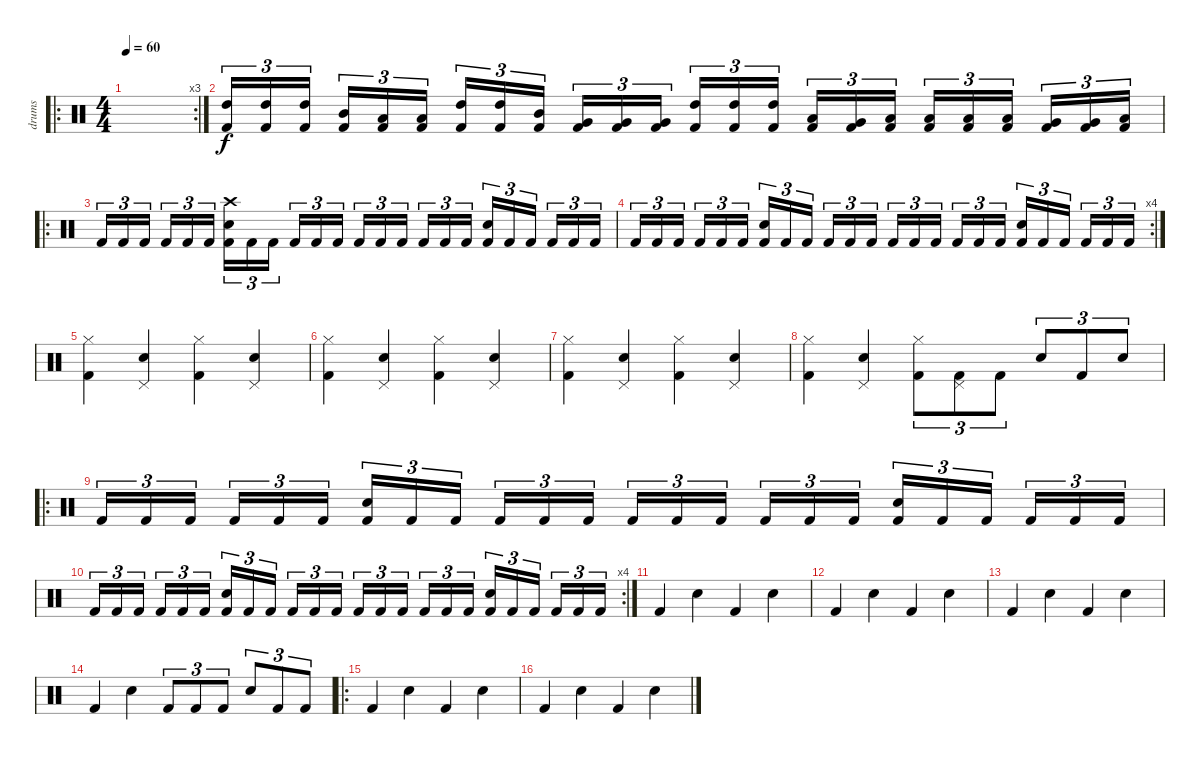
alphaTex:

\track ("drums" "drums") {instrument percussion}
\staff {score}
\articulation defaults
\ro
\rc 3
\ts (4 4)
\tempo 60
\tempo 120
\tempo 60
\clef neutral
\ks c
|
("High Tom (hit)" "Kick (hit) 2").16{tu (3 2)} ("High Tom (hit)" "Kick (hit) 2").16{tu (3 2)} ("High Tom (hit)" "Kick (hit) 2").16{tu (3 2)} ("Mid Tom (hit)" "Kick (hit) 2").16{tu (3 2)} ("Low Tom (hit)" "Kick (hit) 2").16{tu (3 2)} ("Low Tom (hit)" "Kick (hit) 2").16{tu (3 2)} ("High Tom (hit)" "Kick (hit) 2").16{tu (3 2)} ("High Tom (hit)" "Kick (hit) 2").16{tu (3 2)} ("Mid Tom (hit)" "Kick (hit) 2").16{tu (3 2)} ("Very Low Tom (hit)" "Kick (hit) 2").16{tu (3 2)} ("Very Low Tom (hit)" "Kick (hit) 2").16{tu (3 2)} ("Very Low Tom (hit)" "Kick (hit) 2").16{tu (3 2)} ("High Tom (hit)" "Kick (hit) 2").16{tu (3 2)} ("High Tom (hit)" "Kick (hit) 2").16{tu (3 2)} ("High Tom (hit)" "Kick (hit) 2").16{tu (3 2)} ("Low Tom (hit)" "Kick (hit) 2").16{tu (3 2)} ("Very Low Tom (hit)" "Kick (hit) 2").16{tu (3 2)} ("Low Floor Tom (hit)" "Kick (hit) 2").16{tu (3 2)} ("Low Tom (hit)" "Kick (hit) 2").16{tu (3 2)} ("Low Tom (hit)" "Kick (hit) 2").16{tu (3 2)} ("Low Tom (hit)" "Kick (hit) 2").16{tu (3 2)} ("Very Low Tom (hit)" "Kick (hit) 2").16{tu (3 2)} ("Very Low Tom (hit)" "Kick (hit) 2").16{tu (3 2)} ("Low Floor Tom (hit)" "Kick (hit) 2").16{tu (3 2)} |
\ro "Kick (hit) 2".16{tu (3 2)} "Kick (hit) 2".16{tu (3 2)} "Kick (hit) 2".16{tu (3 2)} "Kick (hit) 2".16{tu (3 2)} "Kick (hit) 2".16{tu (3 2)} "Kick (hit) 2".16{tu (3 2)}
("Snare (hit) 2" "Crash high (hit)" "Kick (hit) 2").16{tu (3 2)} "Kick (hit) 2".16{tu (3 2)} "Kick (hit) 2".16{tu (3 2)} "Kick (hit) 2".16{tu (3 2)} "Kick (hit) 2".16{tu (3 2)} "Kick (hit) 2".16{tu (3 2)} "Kick (hit) 2".16{tu (3 2)} "Kick (hit) 2".16{tu (3 2)} "Kick (hit) 2".16{tu (3 2)} "Kick (hit) 2".16{tu (3 2)} "Kick (hit) 2".16{tu (3 2)} "Kick (hit) 2".16{tu (3 2)} ("Snare (hit) 2" "Kick (hit) 2").16{tu (3 2)} "Kick (hit) 2".16{tu (3 2)} "Kick (hit) 2".16{tu (3 2)} "Kick (hit) 2".16{tu (3 2)} "Kick (hit) 2".16{tu (3 2)} "Kick (hit) 2".16{tu (3 2)} |
\rc 4 "Kick (hit) 2".16{tu (3 2)} "Kick (hit) 2".16{tu (3 2)} "Kick (hit) 2".16{tu (3 2)} "Kick (hit) 2".16{tu (3 2)} "Kick (hit) 2".16{tu (3 2)} "Kick (hit) 2".16{tu (3 2)}
("Snare (hit) 2" "Kick (hit) 2").16{tu (3 2)} "Kick (hit) 2".16{tu (3 2)} "Kick (hit) 2".16{tu (3 2)} "Kick (hit) 2".16{tu (3 2)} "Kick (hit) 2".16{tu (3 2)} "Kick (hit) 2".16{tu (3 2)} "Kick (hit) 2".16{tu (3 2)} "Kick (hit) 2".16{tu (3 2)} "Kick (hit) 2".16{tu (3 2)} "Kick (hit) 2".16{tu (3 2)} "Kick (hit) 2".16{tu (3 2)} "Kick (hit) 2".16{tu (3 2)} ("Snare (hit) 2" "Kick (hit) 2").16{tu (3 2)} "Kick (hit) 2".16{tu (3 2)} "Kick (hit) 2".16{tu (3 2)} "Kick (hit) 2".16{tu (3 2)} "Kick (hit) 2".16{tu (3 2)} "Kick (hit) 2".16{tu (3 2)} |
("Hi-Hat (closed)" "Kick (hit) 2").4 ("Pedal Hi-Hat (hit)" "Snare (hit) 2").4 ("Hi-Hat (closed)" "Kick (hit) 2").4 ("Pedal Hi-Hat (hit)" "Snare (hit) 2").4 |
("Hi-Hat (closed)" "Kick (hit) 2").4 ("Pedal Hi-Hat (hit)" "Snare (hit) 2").4 ("Hi-Hat (closed)" "Kick (hit) 2").4 ("Pedal Hi-Hat (hit)" "Snare (hit) 2").4 |
("Hi-Hat (closed)" "Kick (hit) 2").4 ("Pedal Hi-Hat (hit)" "Snare (hit) 2").4 ("Hi-Hat (closed)" "Kick (hit) 2").4 ("Pedal Hi-Hat (hit)" "Snare (hit) 2").4 |
("Hi-Hat (closed)" "Kick (hit) 2").4 ("Pedal Hi-Hat (hit)" "Snare (hit) 2").4 ("Hi-Hat (closed)" "Kick (hit) 2").8{tu (3 2)} ("Pedal Hi-Hat (hit)" "Kick (hit) 2").8{tu (3 2)} "Kick (hit) 2".8{tu (3 2)} "Snare (hit) 2".8{tu (3 2)} "Kick (hit) 2".8{tu (3 2)} "Snare (hit) 2".8{tu (3 2)} |
\ro "Kick (hit) 2".16{tu (3 2)} "Kick (hit) 2".16{tu (3 2)} "Kick (hit) 2".16{tu (3 2)} "Kick (hit) 2".16{tu (3 2)} "Kick (hit) 2".16{tu (3 2)} "Kick (hit) 2".16{tu (3 2)}
("Snare (hit) 2" "Kick (hit) 2").16{tu (3 2)} "Kick (hit) 2".16{tu (3 2)} "Kick (hit) 2".16{tu (3 2)} "Kick (hit) 2".16{tu (3 2)} "Kick (hit) 2".16{tu (3 2)} "Kick (hit) 2".16{tu (3 2)} "Kick (hit) 2".16{tu (3 2)} "Kick (hit) 2".16{tu (3 2)} "Kick (hit) 2".16{tu (3 2)} "Kick (hit) 2".16{tu (3 2)} "Kick (hit) 2".16{tu (3 2)} "Kick (hit) 2".16{tu (3 2)} ("Snare (hit) 2" "Kick (hit) 2").16{tu (3 2)} "Kick (hit) 2".16{tu (3 2)} "Kick (hit) 2".16{tu (3 2)} "Kick (hit) 2".16{tu (3 2)} "Kick (hit) 2".16{tu (3 2)} "Kick (hit) 2".16{tu (3 2)} |
\rc 4 "Kick (hit) 2".16{tu (3 2)} "Kick (hit) 2".16{tu (3 2)} "Kick (hit) 2".16{tu (3 2)} "Kick (hit) 2".16{tu (3 2)} "Kick (hit) 2".16{tu (3 2)} "Kick (hit) 2".16{tu (3 2)}
("Snare (hit) 2" "Kick (hit) 2").16{tu (3 2)} "Kick (hit) 2".16{tu (3 2)} "Kick (hit) 2".16{tu (3 2)} "Kick (hit) 2".16{tu (3 2)} "Kick (hit) 2".16{tu (3 2)} "Kick (hit) 2".16{tu (3 2)} "Kick (hit) 2".16{tu (3 2)} "Kick (hit) 2".16{tu (3 2)} "Kick (hit) 2".16{tu (3 2)} "Kick (hit) 2".16{tu (3 2)} "Kick (hit) 2".16{tu (3 2)} "Kick (hit) 2".16{tu (3 2)} ("Snare (hit) 2" "Kick (hit) 2").16{tu (3 2)} "Kick (hit) 2".16{tu (3 2)} "Kick (hit) 2".16{tu (3 2)} "Kick (hit) 2".16{tu (3 2)} "Kick (hit) 2".16{tu (3 2)} "Kick (hit) 2".16{tu (3 2)} |
"Kick (hit) 2".4 "Snare (hit) 2".4 "Kick (hit) 2".4 "Snare (hit) 2".4 |
"Kick (hit) 2".4 "Snare (hit) 2".4 "Kick (hit) 2".4 "Snare (hit) 2".4 |
"Kick (hit) 2".4 "Snare (hit) 2".4 "Kick (hit) 2".4 "Snare (hit) 2".4 |
"Kick (hit) 2".4 "Snare (hit) 2".4 "Kick (hit) 2".8{tu (3 2)} "Kick (hit) 2".8{tu (3 2)} "Kick (hit) 2".8{tu (3 2)} "Snare (hit) 2".8{tu (3 2)} "Kick (hit) 2".8{tu (3 2)} "Kick (hit) 2".8{tu (3 2)} |
\ro "Kick (hit) 2".4 "Snare (hit) 2".4 "Kick (hit) 2".4 "Snare (hit) 2".4
|
"Kick (hit) 2".4 "Snare (hit) 2".4 "Kick (hit) 2".4 "Snare (hit) 2".4
